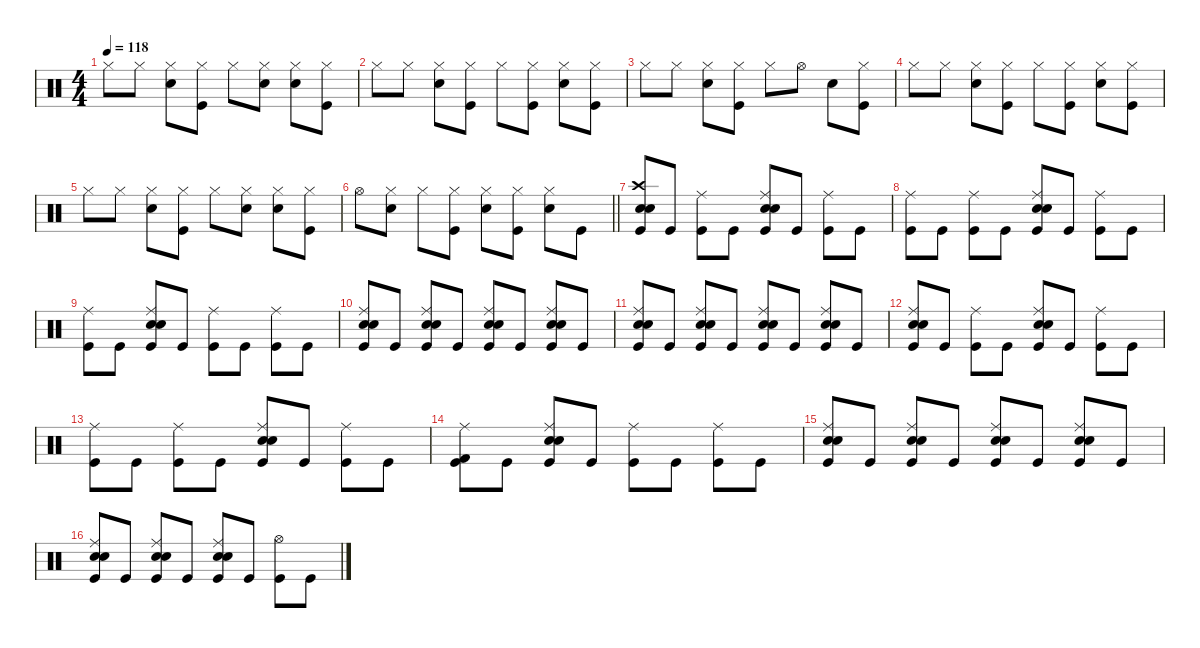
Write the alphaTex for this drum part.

\defaultSystemsLayout 4
\hideDynamics
\bracketExtendMode nobrackets
\singleTrackTrackNamePolicy hidden
\multiTrackTrackNamePolicy hidden
\firstSystemTrackNameMode fullname
\otherSystemsTrackNameOrientation horizontal
\track ("Drums" "drm.") {instrument percussion}
\staff {score}
\articulation defaults
\ts (4 4)
\tempo 118
\clef neutral
\ks c "Hi-Hat (closed)".8{dy f beam Down} "Hi-Hat (closed)".8{beam Down}
("Hi-Hat (closed)" "Snare (hit) 2").8{beam Down} ("Hi-Hat (closed)" "Kick (hit)").8{beam Down} "Hi-Hat (closed)".8{beam Down} ("Hi-Hat (closed)" "Snare (hit) 2").8{beam Down} ("Hi-Hat (closed)" "Snare (hit) 2").8{beam Down} ("Hi-Hat (closed)" "Kick (hit)").8{beam Down} |
"Hi-Hat (closed)".8{beam Down} "Hi-Hat (closed)".8{beam Down} ("Hi-Hat (closed)" "Snare (hit) 2").8{beam Down} ("Hi-Hat (closed)" "Kick (hit)").8{beam Down} "Hi-Hat (closed)".8{beam Down} ("Hi-Hat (closed)" "Kick (hit)").8{beam Down} ("Hi-Hat (closed)" "Snare (hit) 2").8{beam Down} ("Hi-Hat (closed)" "Kick (hit)").8{beam Down} |
"Hi-Hat (closed)".8{beam Down} "Hi-Hat (closed)".8{beam Down} ("Hi-Hat (closed)" "Snare (hit) 2").8{beam Down} ("Hi-Hat (closed)" "Kick (hit)").8{beam Down} "Hi-Hat (closed)".8{beam Down} "Hi-Hat (open)".8{beam Down} "Snare (hit) 2".8{beam Down} ("Hi-Hat (closed)" "Kick (hit)").8{beam Down} |
"Hi-Hat (closed)".8{beam Down} "Hi-Hat (closed)".8{beam Down} ("Hi-Hat (closed)" "Snare (hit) 2").8{beam Down} ("Hi-Hat (closed)" "Kick (hit)").8{beam Down} "Hi-Hat (closed)".8{beam Down} ("Hi-Hat (closed)" "Kick (hit)").8{beam Down} ("Hi-Hat (closed)" "Snare (hit) 2").8{beam Down} ("Hi-Hat (closed)" "Kick (hit)").8{beam Down} |
"Hi-Hat (closed)".8{beam Down} "Hi-Hat (closed)".8{beam Down} ("Hi-Hat (closed)" "Snare (hit) 2").8{beam Down} ("Hi-Hat (closed)" "Kick (hit)").8{beam Down} "Hi-Hat (closed)".8{beam Down} ("Hi-Hat (closed)" "Snare (hit) 2").8{beam Down} ("Hi-Hat (closed)" "Snare (hit) 2").8{beam Down} ("Hi-Hat (closed)" "Kick (hit)").8{beam Down} |
\barLineRight lightlight "Hi-Hat (open)".8{beam Down}
("Hi-Hat (closed)" "Snare (hit) 2").8{beam Down} "Hi-Hat (closed)".8{beam Down} ("Hi-Hat (closed)" "Kick (hit)").8{beam Down} ("Hi-Hat (closed)" "Snare (hit) 2").8{beam Down} ("Hi-Hat (closed)" "Kick (hit)").8{beam Down} ("Hi-Hat (closed)" "Snare (hit) 2").8{beam Down} "Kick (hit)".8{beam Down} |
("Crash high (hit)" "Snare (hit) 2" "Snare (hit) 2" "Kick (hit)").8{beam Up} "Kick (hit)".8{beam Up} ("Ride (middle)" "Kick (hit)").8{beam Down} "Kick (hit)".8{beam Down} ("Ride (middle)" "Snare (hit) 2" "Snare (hit) 2" "Kick (hit)").8{beam Up} "Kick (hit)".8{beam Up} ("Ride (middle)" "Kick (hit)").8{beam Down} "Kick (hit)".8{beam Down} |
("Ride (middle)" "Kick (hit)").8{beam Down} "Kick (hit)".8{beam Down} ("Ride (middle)" "Kick (hit)").8{beam Down} "Kick (hit)".8{beam Down} ("Ride (middle)" "Snare (hit) 2" "Snare (hit) 2" "Kick (hit)").8{beam Up} "Kick (hit)".8{beam Up} ("Ride (middle)" "Kick (hit)").8{beam Down} "Kick (hit)".8{beam Down} |
("Ride (middle)" "Kick (hit)").8{beam Down} "Kick (hit)".8{beam Down} ("Ride (middle)" "Snare (hit) 2" "Snare (hit) 2" "Kick (hit)").8{beam Up} "Kick (hit)".8{beam Up} ("Ride (middle)" "Kick (hit)").8{beam Down} "Kick (hit)".8{beam Down} ("Ride (middle)" "Kick (hit)").8{beam Down} "Kick (hit)".8{beam Down} |
("Ride (middle)" "Snare (hit) 2" "Snare (hit) 2" "Kick (hit)").8{beam Up} "Kick (hit)".8{beam Up} ("Ride (middle)" "Snare (hit) 2" "Snare (hit) 2" "Kick (hit)").8{beam Up} "Kick (hit)".8{beam Up} ("Ride (middle)" "Snare (hit) 2" "Snare (hit) 2" "Kick (hit)").8{beam Up} "Kick (hit)".8{beam Up} ("Ride (middle)" "Snare (hit) 2" "Snare (hit) 2" "Kick (hit)").8{beam Up} "Kick (hit)".8{beam Up} |
("Ride (middle)" "Snare (hit) 2" "Snare (hit) 2" "Kick (hit)").8{beam Up} "Kick (hit)".8{beam Up} ("Ride (middle)" "Snare (hit) 2" "Snare (hit) 2" "Kick (hit)").8{beam Up} "Kick (hit)".8{beam Up} ("Ride (middle)" "Snare (hit) 2" "Snare (hit) 2" "Kick (hit)").8{beam Up} "Kick (hit)".8{beam Up} ("Ride (middle)" "Snare (hit) 2" "Snare (hit) 2" "Kick (hit)").8{beam Up} "Kick (hit)".8{beam Up} |
("Ride (middle)" "Snare (hit) 2" "Snare (hit) 2" "Kick (hit)").8{beam Up} "Kick (hit)".8{beam Up} ("Ride (middle)" "Kick (hit)").8{beam Down} "Kick (hit)".8{beam Down} ("Ride (middle)" "Snare (hit) 2" "Snare (hit) 2" "Kick (hit)").8{beam Up} "Kick (hit)".8{beam Up} ("Ride (middle)" "Kick (hit)").8{beam Down} "Kick (hit)".8{beam Down} |
("Ride (middle)" "Kick (hit)").8{beam Down} "Kick (hit)".8{beam Down} ("Ride (middle)" "Kick (hit)").8{beam Down} "Kick (hit)".8{beam Down} ("Ride (middle)" "Snare (hit) 2" "Snare (hit) 2" "Kick (hit)").8{beam Up} "Kick (hit)".8{beam Up} ("Ride (middle)" "Kick (hit)").8{beam Down} "Kick (hit)".8{beam Down} |
("Ride (middle)" "Kick (hit) 2" "Kick (hit)").8{beam Down} "Kick (hit)".8{beam Down} ("Ride (middle)" "Snare (hit) 2" "Snare (hit) 2" "Kick (hit)").8{beam Up} "Kick (hit)".8{beam Up} ("Ride (middle)" "Kick (hit)").8{beam Down} "Kick (hit)".8{beam Down} ("Ride (middle)" "Kick (hit)").8{beam Down} "Kick (hit)".8{beam Down} |
("Ride (middle)" "Snare (hit) 2" "Snare (hit) 2" "Kick (hit)").8{beam Up} "Kick (hit)".8{beam Up} ("Ride (middle)" "Snare (hit) 2" "Snare (hit) 2" "Kick (hit)").8{beam Up} "Kick (hit)".8{beam Up} ("Ride (middle)" "Snare (hit) 2" "Snare (hit) 2" "Kick (hit)").8{beam Up} "Kick (hit)".8{beam Up} ("Ride (middle)" "Snare (hit) 2" "Snare (hit) 2" "Kick (hit)").8{beam Up} "Kick (hit)".8{beam Up} |
("Ride (middle)" "Snare (hit) 2" "Snare (hit) 2" "Kick (hit)").8{beam Up} "Kick (hit)".8{beam Up} ("Ride (middle)" "Snare (hit) 2" "Snare (hit) 2" "Kick (hit)").8{beam Up} "Kick (hit)".8{beam Up} ("Ride (middle)" "Snare (hit) 2" "Snare (hit) 2" "Kick (hit)").8{beam Up} "Kick (hit)".8{beam Up} ("Hi-Hat (open)" "Kick (hit)").8{beam Down} "Kick (hit)".8{beam Down}
